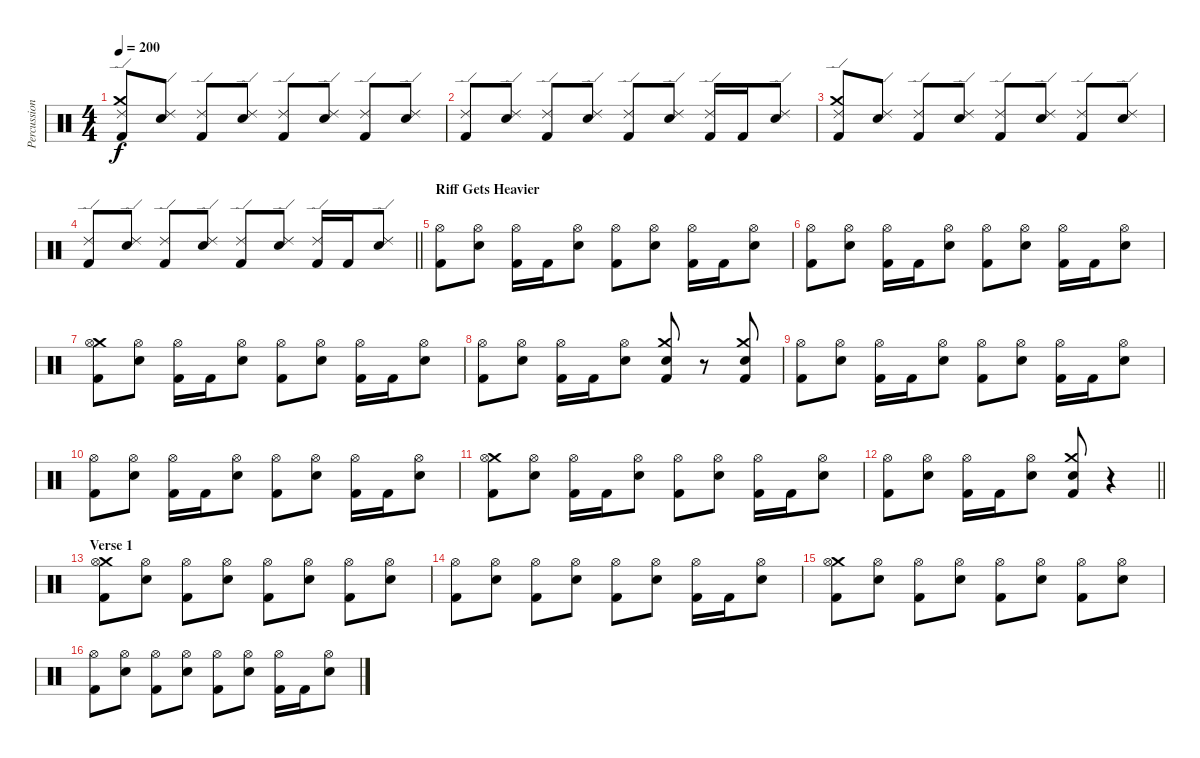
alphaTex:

\track ("Percussion" "Percussion") {instrument percussion}
\staff {score}
\articulation defaults
\ts (4 4)
\tempo 200
\clef neutral
\ks c
("Kick (hit) 2" "Crash medium (hit)" "Ride (edge) 2").8{dy f} ("Electric Snare (hit)" "Ride (edge) 2").8 ("Kick (hit) 2" "Ride (edge) 2").8 ("Electric Snare (hit)" "Ride (edge) 2").8 ("Kick (hit) 2" "Ride (edge) 2").8 ("Electric Snare (hit)" "Ride (edge) 2").8 ("Kick (hit) 2" "Ride (edge) 2").8 ("Electric Snare (hit)" "Ride (edge) 2").8 |
("Kick (hit) 2" "Ride (edge) 2").8 ("Electric Snare (hit)" "Ride (edge) 2").8 ("Kick (hit) 2" "Ride (edge) 2").8 ("Electric Snare (hit)" "Ride (edge) 2").8 ("Kick (hit) 2" "Ride (edge) 2").8 ("Electric Snare (hit)" "Ride (edge) 2").8 ("Kick (hit) 2" "Ride (edge) 2").16 "Kick (hit) 2".16 ("Electric Snare (hit)" "Ride (edge) 2").8 |
("Kick (hit) 2" "Crash medium (hit)" "Ride (edge) 2").8 ("Electric Snare (hit)" "Ride (edge) 2").8 ("Kick (hit) 2" "Ride (edge) 2").8 ("Electric Snare (hit)" "Ride (edge) 2").8 ("Kick (hit) 2" "Ride (edge) 2").8 ("Electric Snare (hit)" "Ride (edge) 2").8 ("Kick (hit) 2" "Ride (edge) 2").8 ("Electric Snare (hit)" "Ride (edge) 2").8 |
\barLineRight lightlight
("Kick (hit) 2" "Ride (edge) 2").8 ("Electric Snare (hit)" "Ride (edge) 2").8 ("Kick (hit) 2" "Ride (edge) 2").8 ("Electric Snare (hit)" "Ride (edge) 2").8 ("Kick (hit) 2" "Ride (edge) 2").8 ("Electric Snare (hit)" "Ride (edge) 2").8 ("Kick (hit) 2" "Ride (edge) 2").16 "Kick (hit) 2".16 ("Electric Snare (hit)" "Ride (edge) 2").8 |
\section ("" "Riff Gets Heavier")
("Kick (hit) 2" "Hi-Hat (open)").8 ("Electric Snare (hit)" "Hi-Hat (open)").8 ("Kick (hit) 2" "Hi-Hat (open)").16 "Kick (hit) 2".16 ("Electric Snare (hit)" "Hi-Hat (open)").8 ("Kick (hit) 2" "Hi-Hat (open)").8 ("Electric Snare (hit)" "Hi-Hat (open)").8 ("Kick (hit) 2" "Hi-Hat (open)").16 "Kick (hit) 2".16 ("Electric Snare (hit)" "Hi-Hat (open)").8 |
("Kick (hit) 2" "Hi-Hat (open)").8 ("Electric Snare (hit)" "Hi-Hat (open)").8 ("Kick (hit) 2" "Hi-Hat (open)").16 "Kick (hit) 2".16 ("Electric Snare (hit)" "Hi-Hat (open)").8 ("Kick (hit) 2" "Hi-Hat (open)").8 ("Electric Snare (hit)" "Hi-Hat (open)").8 ("Kick (hit) 2" "Hi-Hat (open)").16 "Kick (hit) 2".16 ("Electric Snare (hit)" "Hi-Hat (open)").8 |
("Kick (hit) 2" "Crash medium (hit)" "Hi-Hat (open)").8 ("Electric Snare (hit)" "Hi-Hat (open)").8 ("Kick (hit) 2" "Hi-Hat (open)").16 "Kick (hit) 2".16 ("Electric Snare (hit)" "Hi-Hat (open)").8 ("Kick (hit) 2" "Hi-Hat (open)").8 ("Electric Snare (hit)" "Hi-Hat (open)").8 ("Kick (hit) 2" "Hi-Hat (open)").16 "Kick (hit) 2".16 ("Electric Snare (hit)" "Hi-Hat (open)").8 |
("Kick (hit) 2" "Hi-Hat (open)").8 ("Electric Snare (hit)" "Hi-Hat (open)").8 ("Kick (hit) 2" "Hi-Hat (open)").16 "Kick (hit) 2".16 ("Electric Snare (hit)" "Hi-Hat (open)").8 ("Kick (hit) 2" "Electric Snare (hit)" "Crash medium (hit)").8 r.8 ("Kick (hit) 2" "Electric Snare (hit)" "Crash medium (hit)").8 |
("Kick (hit) 2" "Hi-Hat (open)").8 ("Electric Snare (hit)" "Hi-Hat (open)").8 ("Kick (hit) 2" "Hi-Hat (open)").16 "Kick (hit) 2".16 ("Electric Snare (hit)" "Hi-Hat (open)").8 ("Kick (hit) 2" "Hi-Hat (open)").8 ("Electric Snare (hit)" "Hi-Hat (open)").8 ("Kick (hit) 2" "Hi-Hat (open)").16 "Kick (hit) 2".16 ("Electric Snare (hit)" "Hi-Hat (open)").8 |
("Kick (hit) 2" "Hi-Hat (open)").8 ("Electric Snare (hit)" "Hi-Hat (open)").8 ("Kick (hit) 2" "Hi-Hat (open)").16 "Kick (hit) 2".16 ("Electric Snare (hit)" "Hi-Hat (open)").8 ("Kick (hit) 2" "Hi-Hat (open)").8 ("Electric Snare (hit)" "Hi-Hat (open)").8 ("Kick (hit) 2" "Hi-Hat (open)").16 "Kick (hit) 2".16 ("Electric Snare (hit)" "Hi-Hat (open)").8 |
("Kick (hit) 2" "Crash medium (hit)" "Hi-Hat (open)").8 ("Electric Snare (hit)" "Hi-Hat (open)").8 ("Kick (hit) 2" "Hi-Hat (open)").16 "Kick (hit) 2".16 ("Electric Snare (hit)" "Hi-Hat (open)").8 ("Kick (hit) 2" "Hi-Hat (open)").8 ("Electric Snare (hit)" "Hi-Hat (open)").8 ("Kick (hit) 2" "Hi-Hat (open)").16 "Kick (hit) 2".16 ("Electric Snare (hit)" "Hi-Hat (open)").8 |
\barLineRight lightlight
("Kick (hit) 2" "Hi-Hat (open)").8 ("Electric Snare (hit)" "Hi-Hat (open)").8 ("Kick (hit) 2" "Hi-Hat (open)").16 "Kick (hit) 2".16 ("Electric Snare (hit)" "Hi-Hat (open)").8 ("Kick (hit) 2" "Electric Snare (hit)" "Crash medium (hit)").8 r.4 |
\section ("" "Verse 1")
("Kick (hit) 2" "Crash medium (hit)" "Hi-Hat (open)").8 ("Electric Snare (hit)" "Hi-Hat (open)").8 ("Kick (hit) 2" "Hi-Hat (open)").8 ("Electric Snare (hit)" "Hi-Hat (open)").8 ("Kick (hit) 2" "Hi-Hat (open)").8 ("Electric Snare (hit)" "Hi-Hat (open)").8 ("Kick (hit) 2" "Hi-Hat (open)").8 ("Electric Snare (hit)" "Hi-Hat (open)").8 |
("Kick (hit) 2" "Hi-Hat (open)").8 ("Electric Snare (hit)" "Hi-Hat (open)").8 ("Kick (hit) 2" "Hi-Hat (open)").8 ("Electric Snare (hit)" "Hi-Hat (open)").8 ("Kick (hit) 2" "Hi-Hat (open)").8 ("Electric Snare (hit)" "Hi-Hat (open)").8 ("Kick (hit) 2" "Hi-Hat (open)").16 "Kick (hit) 2".16 ("Electric Snare (hit)" "Hi-Hat (open)").8 |
("Kick (hit) 2" "Crash medium (hit)" "Hi-Hat (open)").8 ("Electric Snare (hit)" "Hi-Hat (open)").8 ("Kick (hit) 2" "Hi-Hat (open)").8 ("Electric Snare (hit)" "Hi-Hat (open)").8 ("Kick (hit) 2" "Hi-Hat (open)").8 ("Electric Snare (hit)" "Hi-Hat (open)").8 ("Kick (hit) 2" "Hi-Hat (open)").8 ("Electric Snare (hit)" "Hi-Hat (open)").8 |
("Kick (hit) 2" "Hi-Hat (open)").8 ("Electric Snare (hit)" "Hi-Hat (open)").8 ("Kick (hit) 2" "Hi-Hat (open)").8 ("Electric Snare (hit)" "Hi-Hat (open)").8 ("Kick (hit) 2" "Hi-Hat (open)").8 ("Electric Snare (hit)" "Hi-Hat (open)").8 ("Kick (hit) 2" "Hi-Hat (open)").16 "Kick (hit) 2".16 ("Electric Snare (hit)" "Hi-Hat (open)").8
